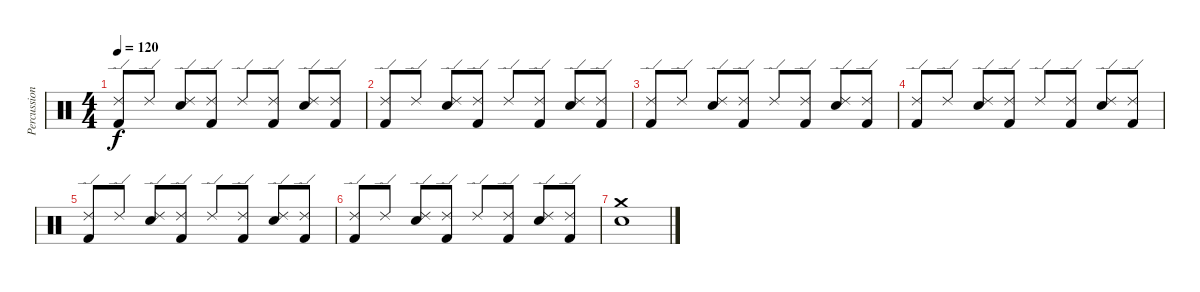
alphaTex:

\track ("Percussion" "Percussion") {instrument percussion}
\staff {score}
\articulation defaults
\ts (4 4)
\tempo 120
\clef neutral
\ks c
("Kick (hit) 2" "Ride (edge) 2").8{dy f} "Ride (edge) 2".8 ("Electric Snare (hit)" "Ride (edge) 2").8 ("Kick (hit) 2" "Ride (edge) 2").8 "Ride (edge) 2".8 ("Kick (hit) 2" "Ride (edge) 2").8 ("Electric Snare (hit)" "Ride (edge) 2").8 ("Kick (hit) 2" "Ride (edge) 2").8 |
("Kick (hit) 2" "Ride (edge) 2").8 "Ride (edge) 2".8 ("Electric Snare (hit)" "Ride (edge) 2").8 ("Kick (hit) 2" "Ride (edge) 2").8 "Ride (edge) 2".8 ("Kick (hit) 2" "Ride (edge) 2").8 ("Electric Snare (hit)" "Ride (edge) 2").8 ("Kick (hit) 2" "Ride (edge) 2").8 |
("Kick (hit) 2" "Ride (edge) 2").8 "Ride (edge) 2".8 ("Electric Snare (hit)" "Ride (edge) 2").8 ("Kick (hit) 2" "Ride (edge) 2").8 "Ride (edge) 2".8 ("Kick (hit) 2" "Ride (edge) 2").8 ("Electric Snare (hit)" "Ride (edge) 2").8 ("Kick (hit) 2" "Ride (edge) 2").8 |
("Kick (hit) 2" "Ride (edge) 2").8 "Ride (edge) 2".8 ("Electric Snare (hit)" "Ride (edge) 2").8 ("Kick (hit) 2" "Ride (edge) 2").8 "Ride (edge) 2".8 ("Kick (hit) 2" "Ride (edge) 2").8 ("Electric Snare (hit)" "Ride (edge) 2").8 ("Kick (hit) 2" "Ride (edge) 2").8 |
("Kick (hit) 2" "Ride (edge) 2").8 "Ride (edge) 2".8 ("Electric Snare (hit)" "Ride (edge) 2").8 ("Kick (hit) 2" "Ride (edge) 2").8 "Ride (edge) 2".8 ("Kick (hit) 2" "Ride (edge) 2").8 ("Electric Snare (hit)" "Ride (edge) 2").8 ("Kick (hit) 2" "Ride (edge) 2").8 |
("Kick (hit) 2" "Ride (edge) 2").8 "Ride (edge) 2".8 ("Electric Snare (hit)" "Ride (edge) 2").8 ("Kick (hit) 2" "Ride (edge) 2").8 "Ride (edge) 2".8 ("Kick (hit) 2" "Ride (edge) 2").8 ("Electric Snare (hit)" "Ride (edge) 2").8 ("Kick (hit) 2" "Ride (edge) 2").8 |
("Electric Snare (hit)" "Crash medium (hit)").1
